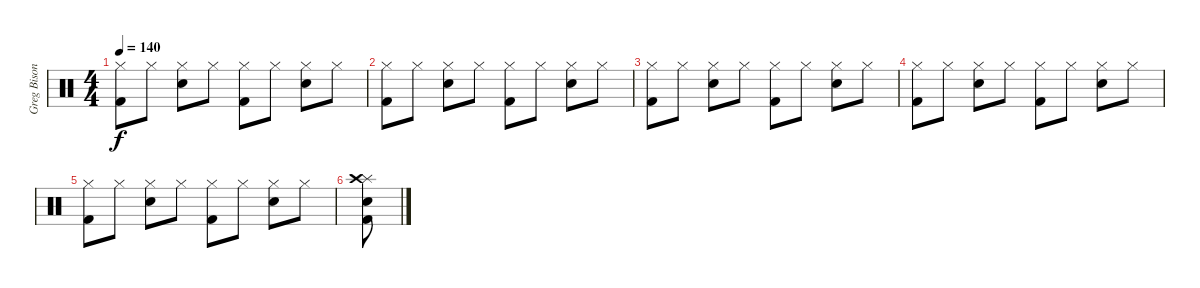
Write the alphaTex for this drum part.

\track ("Greg Bisonette" "Greg Bison") {instrument percussion}
\staff {score}
\articulation defaults
\ts (4 4)
\tempo 140
\clef neutral
\ks c
("Hi-Hat (closed)" "Kick (hit) 2").8{dy f} "Hi-Hat (closed)".8 ("Hi-Hat (closed)" "Electric Snare (hit)").8 "Hi-Hat (closed)".8 ("Hi-Hat (closed)" "Kick (hit) 2").8 "Hi-Hat (closed)".8 ("Hi-Hat (closed)" "Electric Snare (hit)").8 "Hi-Hat (closed)".8 |
("Hi-Hat (closed)" "Kick (hit) 2").8 "Hi-Hat (closed)".8 ("Hi-Hat (closed)" "Electric Snare (hit)").8 "Hi-Hat (closed)".8 ("Hi-Hat (closed)" "Kick (hit) 2").8 "Hi-Hat (closed)".8 ("Hi-Hat (closed)" "Electric Snare (hit)").8 "Hi-Hat (closed)".8 |
("Hi-Hat (closed)" "Kick (hit) 2").8 "Hi-Hat (closed)".8 ("Hi-Hat (closed)" "Electric Snare (hit)").8 "Hi-Hat (closed)".8 ("Hi-Hat (closed)" "Kick (hit) 2").8 "Hi-Hat (closed)".8 ("Hi-Hat (closed)" "Electric Snare (hit)").8 "Hi-Hat (closed)".8 |
("Hi-Hat (closed)" "Kick (hit) 2").8 "Hi-Hat (closed)".8 ("Hi-Hat (closed)" "Electric Snare (hit)").8 "Hi-Hat (closed)".8 ("Hi-Hat (closed)" "Kick (hit) 2").8 "Hi-Hat (closed)".8 ("Hi-Hat (closed)" "Electric Snare (hit)").8 "Hi-Hat (closed)".8 |
("Hi-Hat (closed)" "Kick (hit) 2").8 "Hi-Hat (closed)".8 ("Hi-Hat (closed)" "Electric Snare (hit)").8 "Hi-Hat (closed)".8 ("Hi-Hat (closed)" "Kick (hit) 2").8 "Hi-Hat (closed)".8 ("Hi-Hat (closed)" "Electric Snare (hit)").8 "Hi-Hat (closed)".8 |
("Splash (hit)" "Snare (hit) 2" "Kick (hit) 2" "Crash high (hit)").8
